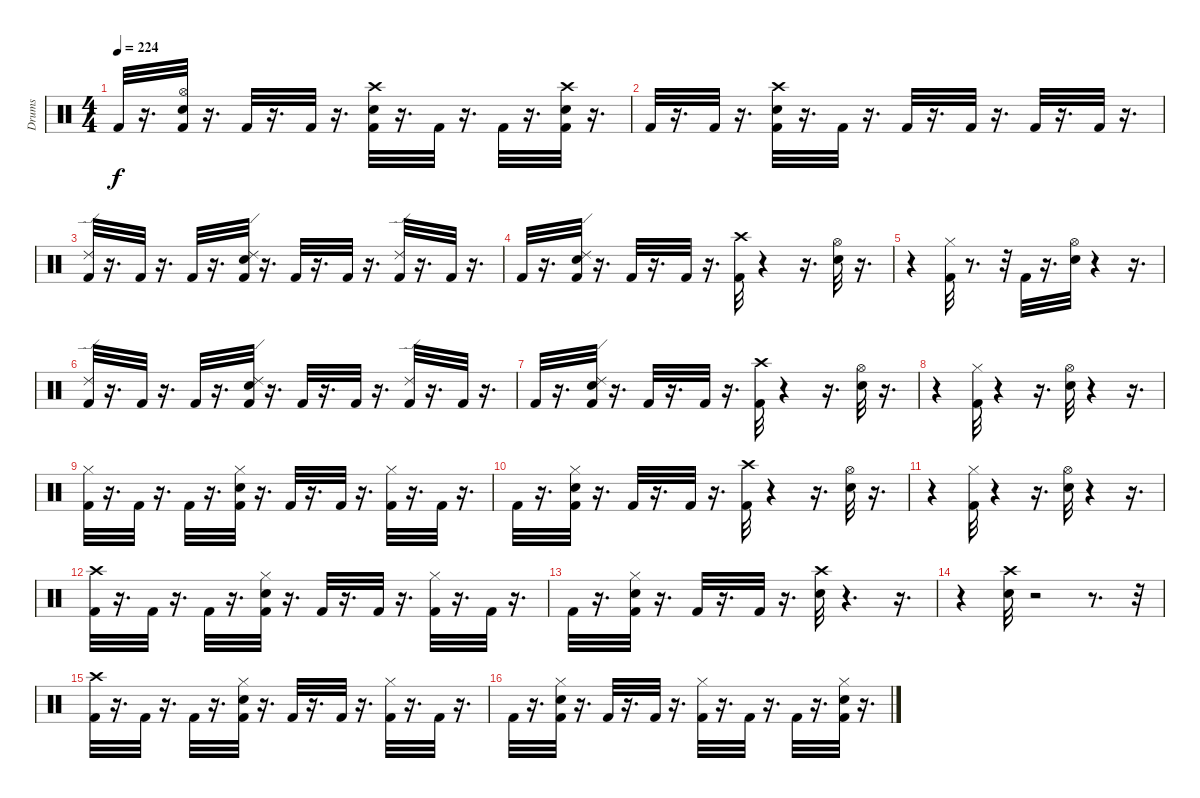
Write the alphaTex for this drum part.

\track ("Drums" "Drums") {instrument percussion}
\staff {score}
\articulation defaults
\ts (4 4)
\tempo 224
\clef neutral
\ks c "Kick (hit) 2".32{dy f}
r.16{d} ("Kick (hit) 2" "Hi-Hat (open)" "Snare (hit) 2").32 r.16{d} "Kick (hit) 2".32 r.16{d} "Kick (hit) 2".32 r.16{d} ("Kick (hit) 2" "Snare (hit) 2" "Crash high (hit)").32 r.16{d} "Kick (hit) 2".32 r.16{d} "Kick (hit) 2".32 r.16{d} ("Kick (hit) 2" "Snare (hit) 2" "Crash high (hit)").32 r.16{d} |
"Kick (hit) 2".32 r.16{d} "Kick (hit) 2".32 r.16{d} ("Kick (hit) 2" "Snare (hit) 2" "Crash high (hit)").32 r.16{d} "Kick (hit) 2".32 r.16{d} "Kick (hit) 2".32 r.16{d} "Kick (hit) 2".32 r.16{d} "Kick (hit) 2".32 r.16{d} "Kick (hit) 2".32 r.16{d} |
("Kick (hit) 2" "Ride (edge) 2").32 r.16{d} "Kick (hit) 2".32 r.16{d} "Kick (hit) 2".32 r.16{d} ("Snare (hit) 2" "Kick (hit) 2" "Ride (edge) 2").32 r.16{d} "Kick (hit) 2".32 r.16{d} "Kick (hit) 2".32 r.16{d} ("Kick (hit) 2" "Ride (edge) 2").32 r.16{d} "Kick (hit) 2".32 r.16{d} |
"Kick (hit) 2".32 r.16{d} ("Snare (hit) 2" "Ride (edge) 2" "Kick (hit) 2").32 r.16{d} "Kick (hit) 2".32 r.16{d} "Kick (hit) 2".32 r.16{d} ("Crash high (hit)" "Kick (hit) 2").32 r.4 r.16{d} ("Snare (hit) 2" "Hi-Hat (open)").32 r.16{d} |
r.4 ("Hi-Hat (closed)" "Kick (hit) 2").32 r.8{d} r.32 "Kick (hit) 2".32 r.16{d} ("Hi-Hat (open)" "Snare (hit) 2").32 r.4 r.16{d} |
("Kick (hit) 2" "Ride (edge) 2").32 r.16{d} "Kick (hit) 2".32 r.16{d} "Kick (hit) 2".32 r.16{d} ("Snare (hit) 2" "Kick (hit) 2" "Ride (edge) 2").32 r.16{d} "Kick (hit) 2".32 r.16{d} "Kick (hit) 2".32 r.16{d} ("Kick (hit) 2" "Ride (edge) 2").32 r.16{d} "Kick (hit) 2".32 r.16{d} |
"Kick (hit) 2".32 r.16{d} ("Snare (hit) 2" "Ride (edge) 2" "Kick (hit) 2").32 r.16{d} "Kick (hit) 2".32 r.16{d} "Kick (hit) 2".32 r.16{d} ("Crash high (hit)" "Kick (hit) 2").32 r.4 r.16{d} ("Snare (hit) 2" "Hi-Hat (open)").32 r.16{d} |
r.4 ("Hi-Hat (closed)" "Kick (hit) 2").32 r.4 r.16{d} ("Hi-Hat (open)" "Snare (hit) 2").32 r.4 r.16{d} |
("Kick (hit) 2" "Hi-Hat (closed)").32 r.16{d} "Kick (hit) 2".32 r.16{d} "Kick (hit) 2".32 r.16{d} ("Snare (hit) 2" "Kick (hit) 2" "Hi-Hat (closed)").32 r.16{d} "Kick (hit) 2".32 r.16{d} "Kick (hit) 2".32 r.16{d} ("Kick (hit) 2" "Hi-Hat (closed)").32 r.16{d} "Kick (hit) 2".32 r.16{d} |
"Kick (hit) 2".32 r.16{d} ("Snare (hit) 2" "Kick (hit) 2" "Hi-Hat (closed)").32 r.16{d} "Kick (hit) 2".32 r.16{d} "Kick (hit) 2".32 r.16{d} ("Crash high (hit)" "Kick (hit) 2").32 r.4 r.16{d} ("Snare (hit) 2" "Hi-Hat (open)").32 r.16{d} |
r.4 ("Kick (hit) 2" "Hi-Hat (closed)").32 r.4 r.16{d} ("Hi-Hat (open)" "Snare (hit) 2").32 r.4 r.16{d} |
("Kick (hit) 2" "Crash high (hit)").32 r.16{d} "Kick (hit) 2".32 r.16{d} "Kick (hit) 2".32 r.16{d} ("Snare (hit) 2" "Kick (hit) 2" "Hi-Hat (closed)").32 r.16{d} "Kick (hit) 2".32 r.16{d} "Kick (hit) 2".32 r.16{d} ("Kick (hit) 2" "Hi-Hat (closed)").32 r.16{d} "Kick (hit) 2".32 r.16{d} |
"Kick (hit) 2".32 r.16{d} ("Snare (hit) 2" "Kick (hit) 2" "Hi-Hat (closed)").32 r.16{d} "Kick (hit) 2".32 r.16{d} "Kick (hit) 2".32 r.16{d} ("Snare (hit) 2" "Crash high (hit)").32 r.4{d} r.16{d} |
r.4 ("Snare (hit) 2" "Crash high (hit)").32 r.2 r.8{d} r.32 |
("Kick (hit) 2" "Crash high (hit)").32 r.16{d} "Kick (hit) 2".32 r.16{d} "Kick (hit) 2".32 r.16{d} ("Kick (hit) 2" "Snare (hit) 2" "Hi-Hat (closed)").32 r.16{d} "Kick (hit) 2".32 r.16{d} "Kick (hit) 2".32 r.16{d} ("Kick (hit) 2" "Hi-Hat (closed)").32 r.16{d} "Kick (hit) 2".32 r.16{d} |
"Kick (hit) 2".32 r.16{d} ("Hi-Hat (closed)" "Snare (hit) 2" "Kick (hit) 2").32 r.16{d} "Kick (hit) 2".32 r.16{d} "Kick (hit) 2".32 r.16{d} ("Kick (hit) 2" "Hi-Hat (closed)").32 r.16{d} "Kick (hit) 2".32 r.16{d} "Kick (hit) 2".32 r.16{d} ("Hi-Hat (closed)" "Snare (hit) 2" "Kick (hit) 2").32 r.16{d}
